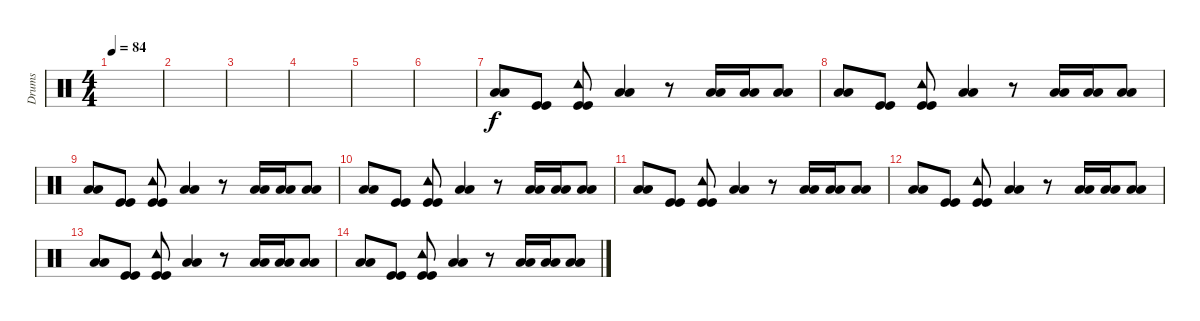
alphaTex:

\track ("Drums" "Drums") {instrument percussion}
\staff {score}
\articulation defaults
\ts (4 4)
\tempo 84
\clef neutral
\ks c
|
|
|
|
|
|
("Low Floor Tom (hit)" "Low Floor Tom (hit)").8 ("Kick (hit)" "Kick (hit)").8 ("Kick (hit)" "Kick (hit)" "Tambourine (hit)").8 ("Low Tom (hit)" "Low Tom (hit)").4 r.8 ("Low Tom (hit)" "Low Tom (hit)").16 ("Low Tom (hit)" "Low Tom (hit)").16 ("Low Floor Tom (hit)" "Low Floor Tom (hit)").8 |
("Low Floor Tom (hit)" "Low Floor Tom (hit)").8 ("Kick (hit)" "Kick (hit)").8 ("Kick (hit)" "Kick (hit)" "Tambourine (hit)").8 ("Low Tom (hit)" "Low Tom (hit)").4 r.8 ("Low Tom (hit)" "Low Tom (hit)").16 ("Low Tom (hit)" "Low Tom (hit)").16 ("Low Floor Tom (hit)" "Low Floor Tom (hit)").8 |
("Low Floor Tom (hit)" "Low Floor Tom (hit)").8 ("Kick (hit)" "Kick (hit)").8 ("Kick (hit)" "Kick (hit)" "Tambourine (hit)").8 ("Low Tom (hit)" "Low Tom (hit)").4 r.8 ("Low Tom (hit)" "Low Tom (hit)").16 ("Low Tom (hit)" "Low Tom (hit)").16 ("Low Floor Tom (hit)" "Low Floor Tom (hit)").8 |
("Low Floor Tom (hit)" "Low Floor Tom (hit)").8 ("Kick (hit)" "Kick (hit)").8 ("Kick (hit)" "Kick (hit)" "Tambourine (hit)").8 ("Low Tom (hit)" "Low Tom (hit)").4 r.8 ("Low Tom (hit)" "Low Tom (hit)").16 ("Low Tom (hit)" "Low Tom (hit)").16 ("Low Floor Tom (hit)" "Low Floor Tom (hit)").8 |
("Low Floor Tom (hit)" "Low Floor Tom (hit)").8 ("Kick (hit)" "Kick (hit)").8 ("Kick (hit)" "Kick (hit)" "Tambourine (hit)").8 ("Low Tom (hit)" "Low Tom (hit)").4 r.8 ("Low Tom (hit)" "Low Tom (hit)").16 ("Low Tom (hit)" "Low Tom (hit)").16 ("Low Floor Tom (hit)" "Low Floor Tom (hit)").8 |
("Low Floor Tom (hit)" "Low Floor Tom (hit)").8 ("Kick (hit)" "Kick (hit)").8 ("Kick (hit)" "Kick (hit)" "Tambourine (hit)").8 ("Low Tom (hit)" "Low Tom (hit)").4 r.8 ("Low Tom (hit)" "Low Tom (hit)").16 ("Low Tom (hit)" "Low Tom (hit)").16 ("Low Floor Tom (hit)" "Low Floor Tom (hit)").8 |
("Low Floor Tom (hit)" "Low Floor Tom (hit)").8 ("Kick (hit)" "Kick (hit)").8 ("Kick (hit)" "Kick (hit)" "Tambourine (hit)").8 ("Low Tom (hit)" "Low Tom (hit)").4 r.8 ("Low Tom (hit)" "Low Tom (hit)").16 ("Low Tom (hit)" "Low Tom (hit)").16 ("Low Floor Tom (hit)" "Low Floor Tom (hit)").8 |
("Low Floor Tom (hit)" "Low Floor Tom (hit)").8 ("Kick (hit)" "Kick (hit)").8 ("Kick (hit)" "Kick (hit)" "Tambourine (hit)").8 ("Low Tom (hit)" "Low Tom (hit)").4 r.8 ("Low Tom (hit)" "Low Tom (hit)").16 ("Low Tom (hit)" "Low Tom (hit)").16 ("Low Floor Tom (hit)" "Low Floor Tom (hit)").8
